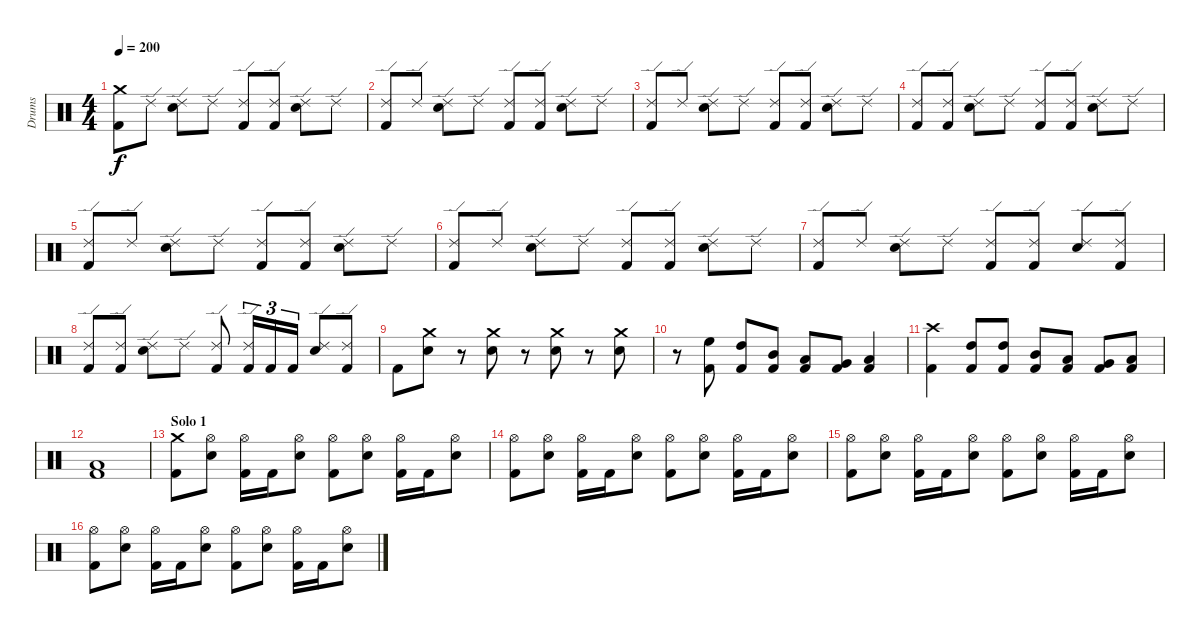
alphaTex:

\track ("Drums" "Drums") {instrument percussion}
\staff {score}
\articulation defaults
\ts (4 4)
\section ("" "")
\tempo 200
\clef neutral
\ks c
("Kick (hit) 2" "Crash medium (hit)").8{dy f} "Ride (edge) 2".8 ("Snare (hit) 2" "Ride (edge) 2").8 "Ride (edge) 2".8 ("Kick (hit) 2" "Ride (edge) 2").8 ("Kick (hit) 2" "Ride (edge) 2").8 ("Snare (hit) 2" "Ride (edge) 2").8 "Ride (edge) 2".8 |
("Kick (hit) 2" "Ride (edge) 2").8 "Ride (edge) 2".8 ("Snare (hit) 2" "Ride (edge) 2").8 "Ride (edge) 2".8 ("Kick (hit) 2" "Ride (edge) 2").8 ("Kick (hit) 2" "Ride (edge) 2").8 ("Snare (hit) 2" "Ride (edge) 2").8 "Ride (edge) 2".8 |
("Kick (hit) 2" "Ride (edge) 2").8 "Ride (edge) 2".8 ("Snare (hit) 2" "Ride (edge) 2").8 "Ride (edge) 2".8 ("Kick (hit) 2" "Ride (edge) 2").8 ("Kick (hit) 2" "Ride (edge) 2").8 ("Snare (hit) 2" "Ride (edge) 2").8 "Ride (edge) 2".8 |
("Kick (hit) 2" "Ride (edge) 2").8 ("Kick (hit) 2" "Ride (edge) 2").8 ("Snare (hit) 2" "Ride (edge) 2").8 "Ride (edge) 2".8 ("Kick (hit) 2" "Ride (edge) 2").8 ("Kick (hit) 2" "Ride (edge) 2").8 ("Snare (hit) 2" "Ride (edge) 2").8 "Ride (edge) 2".8 |
\section ("" "")
("Kick (hit) 2" "Ride (edge) 2").8 "Ride (edge) 2".8 ("Snare (hit) 2" "Ride (edge) 2").8 "Ride (edge) 2".8 ("Kick (hit) 2" "Ride (edge) 2").8 ("Kick (hit) 2" "Ride (edge) 2").8 ("Snare (hit) 2" "Ride (edge) 2").8 "Ride (edge) 2".8 |
("Kick (hit) 2" "Ride (edge) 2").8 "Ride (edge) 2".8 ("Snare (hit) 2" "Ride (edge) 2").8 "Ride (edge) 2".8 ("Kick (hit) 2" "Ride (edge) 2").8 ("Kick (hit) 2" "Ride (edge) 2").8 ("Snare (hit) 2" "Ride (edge) 2").8 "Ride (edge) 2".8 |
("Kick (hit) 2" "Ride (edge) 2").8 "Ride (edge) 2".8 ("Snare (hit) 2" "Ride (edge) 2").8 "Ride (edge) 2".8 ("Kick (hit) 2" "Ride (edge) 2").8 ("Kick (hit) 2" "Ride (edge) 2").8 ("Snare (hit) 2" "Ride (edge) 2").8 ("Kick (hit) 2" "Ride (edge) 2").8 |
("Kick (hit) 2" "Ride (edge) 2").8 ("Kick (hit) 2" "Ride (edge) 2").8 ("Snare (hit) 2" "Ride (edge) 2").8 "Ride (edge) 2".8 ("Kick (hit) 2" "Ride (edge) 2").8 ("Kick (hit) 2" "Ride (edge) 2").16{tu (3 2)} "Kick (hit) 2".16{tu (3 2)} "Kick (hit) 2".16{tu (3 2)} ("Snare (hit) 2" "Ride (edge) 2").8 ("Kick (hit) 2" "Ride (edge) 2").8 |
"Kick (hit) 2".8 ("Snare (hit) 2" "Crash medium (hit)").8 r.8 ("Snare (hit) 2" "Crash medium (hit)").8 r.8 ("Snare (hit) 2" "Crash medium (hit)").8 r.8 ("Snare (hit) 2" "Crash medium (hit)").8 |
r.8 ("Kick (hit) 2" "High Floor Tom (hit)").8 ("Kick (hit) 2" "High Tom (hit)").8 ("Kick (hit) 2" "Mid Tom (hit)").8 ("Kick (hit) 2" "Low Tom (hit)").8 ("Kick (hit) 2" "Very Low Tom (hit)").8 ("Kick (hit) 2" "Low Floor Tom (hit)").4 |
("Kick (hit) 2" "Crash high (hit)").4 ("Kick (hit) 2" "High Tom (hit)").8 ("Kick (hit) 2" "High Tom (hit)").8 ("Kick (hit) 2" "Mid Tom (hit)").8 ("Kick (hit) 2" "Low Tom (hit)").8 ("Kick (hit) 2" "Very Low Tom (hit)").8 ("Kick (hit) 2" "Low Floor Tom (hit)").8 |
("Kick (hit) 2" "Low Floor Tom (hit)").1 |
\section ("" "Solo 1")
("Kick (hit) 2" "Crash medium (hit)").8 ("Snare (hit) 2" "Hi-Hat (open)").8 ("Kick (hit) 2" "Hi-Hat (open)").16 "Kick (hit) 2".16 ("Snare (hit) 2" "Hi-Hat (open)").8 ("Kick (hit) 2" "Hi-Hat (open)").8 ("Snare (hit) 2" "Hi-Hat (open)").8 ("Kick (hit) 2" "Hi-Hat (open)").16 "Kick (hit) 2".16 ("Snare (hit) 2" "Hi-Hat (open)").8 |
("Kick (hit) 2" "Hi-Hat (open)").8 ("Snare (hit) 2" "Hi-Hat (open)").8 ("Kick (hit) 2" "Hi-Hat (open)").16 "Kick (hit) 2".16 ("Snare (hit) 2" "Hi-Hat (open)").8 ("Kick (hit) 2" "Hi-Hat (open)").8 ("Snare (hit) 2" "Hi-Hat (open)").8 ("Kick (hit) 2" "Hi-Hat (open)").16 "Kick (hit) 2".16 ("Snare (hit) 2" "Hi-Hat (open)").8 |
("Kick (hit) 2" "Hi-Hat (open)").8 ("Snare (hit) 2" "Hi-Hat (open)").8 ("Kick (hit) 2" "Hi-Hat (open)").16 "Kick (hit) 2".16 ("Snare (hit) 2" "Hi-Hat (open)").8 ("Kick (hit) 2" "Hi-Hat (open)").8 ("Snare (hit) 2" "Hi-Hat (open)").8 ("Kick (hit) 2" "Hi-Hat (open)").16 "Kick (hit) 2".16 ("Snare (hit) 2" "Hi-Hat (open)").8 |
("Kick (hit) 2" "Hi-Hat (open)").8 ("Snare (hit) 2" "Hi-Hat (open)").8 ("Kick (hit) 2" "Hi-Hat (open)").16 "Kick (hit) 2".16 ("Snare (hit) 2" "Hi-Hat (open)").8 ("Kick (hit) 2" "Hi-Hat (open)").8 ("Snare (hit) 2" "Hi-Hat (open)").8 ("Kick (hit) 2" "Hi-Hat (open)").16 "Kick (hit) 2".16 ("Snare (hit) 2" "Hi-Hat (open)").8
